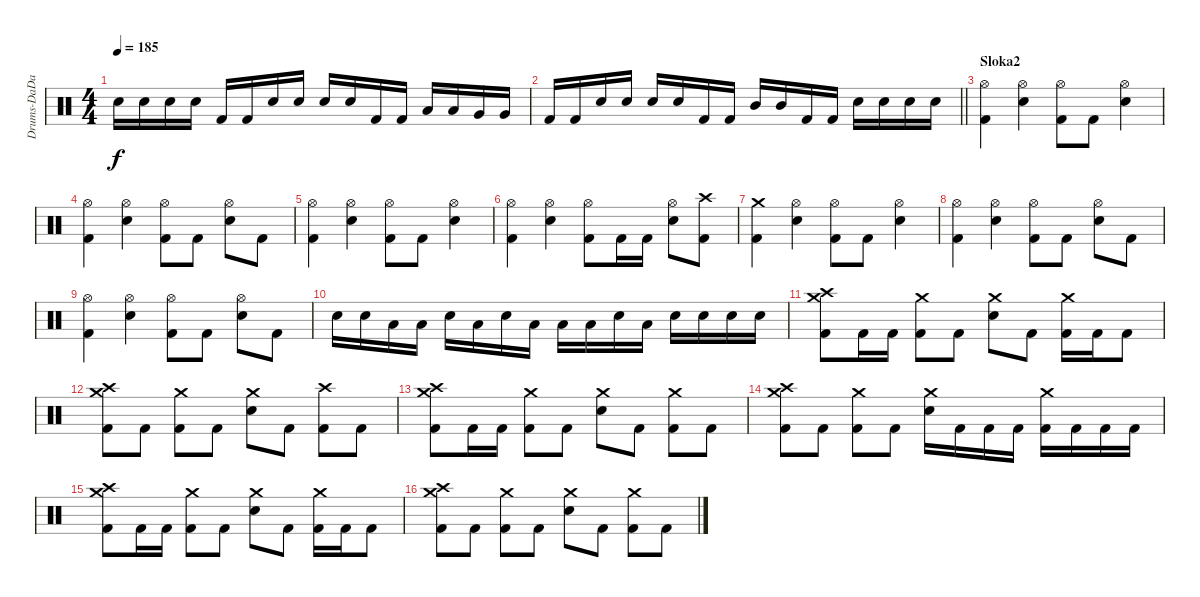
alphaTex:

\track ("Drums-DaDa" "Drums-DaDa") {instrument percussion}
\staff {score}
\articulation defaults
\ts (4 4)
\tempo 185
\clef neutral
\ks c "Electric Snare (hit)".16{dy f} "Electric Snare (hit)".16 "Electric Snare (hit)".16 "Electric Snare (hit)".16 "Kick (hit) 2".16 "Kick (hit) 2".16 "Electric Snare (hit)".16 "Electric Snare (hit)".16 "Electric Snare (hit)".16 "Electric Snare (hit)".16 "Kick (hit) 2".16 "Kick (hit) 2".16 "Low Tom (hit)".16 "Low Tom (hit)".16 "Very Low Tom (hit)".16 "Very Low Tom (hit)".16
|
\barLineRight lightlight "Kick (hit) 2".16 "Kick (hit) 2".16 "Electric Snare (hit)".16 "Electric Snare (hit)".16 "Electric Snare (hit)".16 "Electric Snare (hit)".16 "Kick (hit) 2".16 "Kick (hit) 2".16 "Mid Tom (hit)".16 "Mid Tom (hit)".16 "Kick (hit) 2".16 "Kick (hit) 2".16 "Electric Snare (hit)".16 "Electric Snare (hit)".16 "Electric Snare (hit)".16 "Electric Snare (hit)".16
|
\section ("" "Sloka2")
("Hi-Hat (open)" "Kick (hit) 2").4 ("Hi-Hat (open)" "Electric Snare (hit)").4 ("Hi-Hat (open)" "Kick (hit) 2").8 "Kick (hit) 2".8 ("Hi-Hat (open)" "Electric Snare (hit)").4 |
("Hi-Hat (open)" "Kick (hit) 2").4 ("Hi-Hat (open)" "Electric Snare (hit)").4 ("Hi-Hat (open)" "Kick (hit) 2").8 "Kick (hit) 2".8 ("Hi-Hat (open)" "Electric Snare (hit)").8 "Kick (hit) 2".8 |
("Hi-Hat (open)" "Kick (hit) 2").4 ("Hi-Hat (open)" "Electric Snare (hit)").4 ("Hi-Hat (open)" "Kick (hit) 2").8 "Kick (hit) 2".8 ("Hi-Hat (open)" "Electric Snare (hit)").4 |
("Hi-Hat (open)" "Kick (hit) 2").4 ("Hi-Hat (open)" "Electric Snare (hit)").4 ("Hi-Hat (open)" "Kick (hit) 2").8 "Kick (hit) 2".16 "Kick (hit) 2".16 ("Hi-Hat (open)" "Electric Snare (hit)").8 ("Crash high (hit)" "Kick (hit) 2").8 |
("Crash medium (hit)" "Kick (hit) 2").4 ("Hi-Hat (open)" "Electric Snare (hit)").4 ("Hi-Hat (open)" "Kick (hit) 2").8 "Kick (hit) 2".8 ("Hi-Hat (open)" "Electric Snare (hit)").4 |
("Hi-Hat (open)" "Kick (hit) 2").4 ("Hi-Hat (open)" "Electric Snare (hit)").4 ("Hi-Hat (open)" "Kick (hit) 2").8 "Kick (hit) 2".8 ("Hi-Hat (open)" "Electric Snare (hit)").8 "Kick (hit) 2".8 |
("Hi-Hat (open)" "Kick (hit) 2").4 ("Hi-Hat (open)" "Electric Snare (hit)").4 ("Hi-Hat (open)" "Kick (hit) 2").8 "Kick (hit) 2".8 ("Hi-Hat (open)" "Electric Snare (hit)").8 "Kick (hit) 2".8 |
"Electric Snare (hit)".16 "Electric Snare (hit)".16 "Low Tom (hit)".16 "Low Tom (hit)".16 "Electric Snare (hit)".16 "Low Tom (hit)".16 "Electric Snare (hit)".16 "Low Tom (hit)".16 "Low Tom (hit)".16 "Low Tom (hit)".16 "Electric Snare (hit)".16 "Low Tom (hit)".16 "Electric Snare (hit)".16 "Electric Snare (hit)".16 "Electric Snare (hit)".16 "Electric Snare (hit)".16 |
("Crash high (hit)" "Crash medium (hit)" "Kick (hit) 2").8 "Kick (hit) 2".16 "Kick (hit) 2".16 ("Crash medium (hit)" "Kick (hit) 2").8 "Kick (hit) 2".8 ("Crash medium (hit)" "Electric Snare (hit)").8 "Kick (hit) 2".8 ("Crash medium (hit)" "Kick (hit) 2").16 "Kick (hit) 2".16 "Kick (hit) 2".8 |
("Crash high (hit)" "Crash medium (hit)" "Kick (hit) 2").8 "Kick (hit) 2".8 ("Crash medium (hit)" "Kick (hit) 2").8 "Kick (hit) 2".8 ("Crash medium (hit)" "Electric Snare (hit)").8 "Kick (hit) 2".8 ("Crash high (hit)" "Kick (hit) 2").8 "Kick (hit) 2".8 |
("Crash high (hit)" "Crash medium (hit)" "Kick (hit) 2").8 "Kick (hit) 2".16 "Kick (hit) 2".16 ("Crash medium (hit)" "Kick (hit) 2").8 "Kick (hit) 2".8 ("Crash medium (hit)" "Electric Snare (hit)").8 "Kick (hit) 2".8 ("Crash medium (hit)" "Kick (hit) 2").8 "Kick (hit) 2".8 |
("Crash high (hit)" "Crash medium (hit)" "Kick (hit) 2").8 "Kick (hit) 2".8 ("Crash medium (hit)" "Kick (hit) 2").8 "Kick (hit) 2".8 ("Crash medium (hit)" "Electric Snare (hit)").16 "Kick (hit) 2".16 "Kick (hit) 2".16 "Kick (hit) 2".16 ("Crash medium (hit)" "Kick (hit) 2").16 "Kick (hit) 2".16 "Kick (hit) 2".16 "Kick (hit) 2".16 |
("Crash high (hit)" "Crash medium (hit)" "Kick (hit) 2").8 "Kick (hit) 2".16 "Kick (hit) 2".16 ("Crash medium (hit)" "Kick (hit) 2").8 "Kick (hit) 2".8 ("Crash medium (hit)" "Electric Snare (hit)").8 "Kick (hit) 2".8 ("Crash medium (hit)" "Kick (hit) 2").16 "Kick (hit) 2".16 "Kick (hit) 2".8 |
("Crash high (hit)" "Crash medium (hit)" "Kick (hit) 2").8 "Kick (hit) 2".8 ("Crash medium (hit)" "Kick (hit) 2").8 "Kick (hit) 2".8 ("Crash medium (hit)" "Electric Snare (hit)").8 "Kick (hit) 2".8 ("Crash medium (hit)" "Kick (hit) 2").8 "Kick (hit) 2".8
